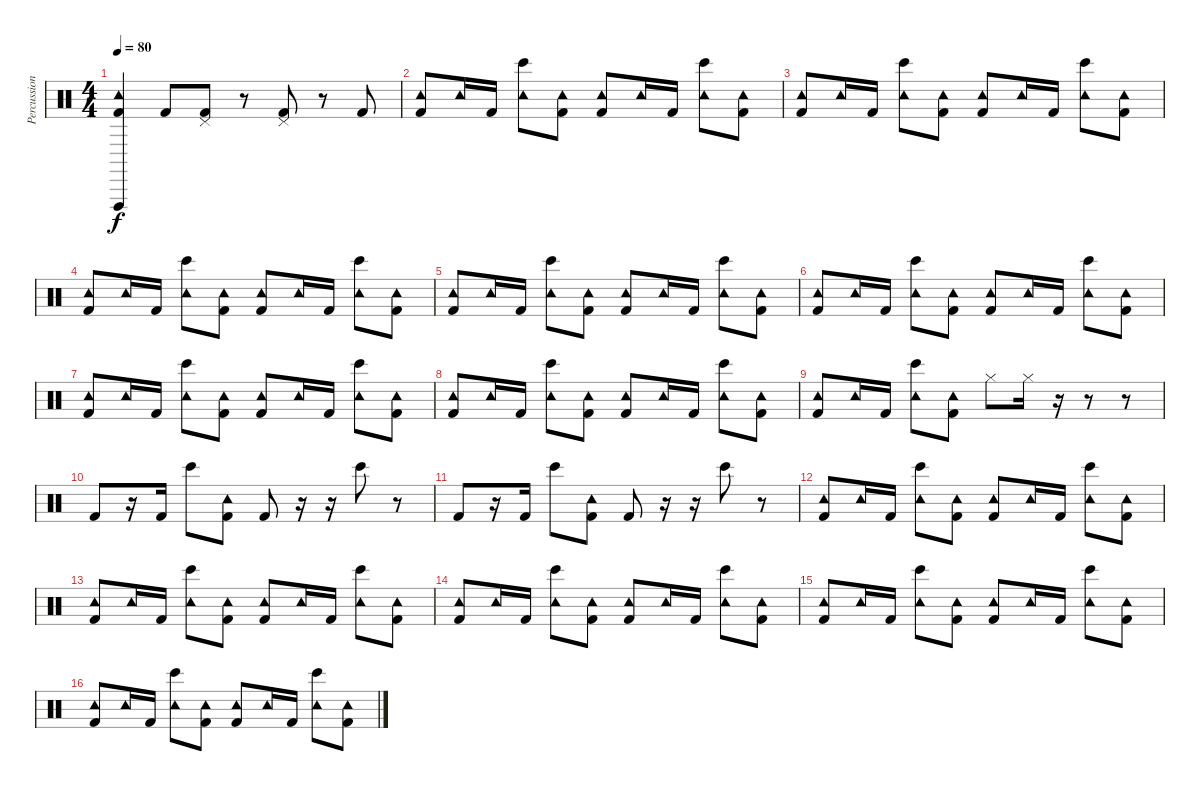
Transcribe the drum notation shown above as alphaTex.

\track ("Percussion" "Percussion") {instrument percussion}
\staff {score}
\articulation defaults
\ts (4 4)
\tempo 80
\clef neutral
\ks c
("Tambourine (hit)" "Vibraslap (hit)" "Kick (hit) 2").4{dy f} "Kick (hit) 2".8 ("Kick (hit) 2" "Pedal Hi-Hat (hit)").8 r.8 ("Kick (hit) 2" "Pedal Hi-Hat (hit)").8 r.8 "Kick (hit) 2".8 |
("Kick (hit) 2" "Tambourine (hit)").8 "Tambourine (hit)".16 "Kick (hit) 2".16 ("Bongo High (hit)" "Tambourine (hit)").8 ("Kick (hit) 2" "Tambourine (hit)").8 ("Kick (hit) 2" "Tambourine (hit)").8 "Tambourine (hit)".16 "Kick (hit) 2".16 ("Bongo High (hit)" "Tambourine (hit)").8 ("Kick (hit) 2" "Tambourine (hit)").8 |
("Kick (hit) 2" "Tambourine (hit)").8 "Tambourine (hit)".16 "Kick (hit) 2".16 ("Bongo High (hit)" "Tambourine (hit)").8 ("Kick (hit) 2" "Tambourine (hit)").8 ("Kick (hit) 2" "Tambourine (hit)").8 "Tambourine (hit)".16 "Kick (hit) 2".16 ("Bongo High (hit)" "Tambourine (hit)").8 ("Kick (hit) 2" "Tambourine (hit)").8 |
("Kick (hit) 2" "Tambourine (hit)").8 "Tambourine (hit)".16 "Kick (hit) 2".16 ("Bongo High (hit)" "Tambourine (hit)").8 ("Kick (hit) 2" "Tambourine (hit)").8 ("Kick (hit) 2" "Tambourine (hit)").8 "Tambourine (hit)".16 "Kick (hit) 2".16 ("Bongo High (hit)" "Tambourine (hit)").8 ("Kick (hit) 2" "Tambourine (hit)").8 |
("Kick (hit) 2" "Tambourine (hit)").8 "Tambourine (hit)".16 "Kick (hit) 2".16 ("Bongo High (hit)" "Tambourine (hit)").8 ("Kick (hit) 2" "Tambourine (hit)").8 ("Kick (hit) 2" "Tambourine (hit)").8 "Tambourine (hit)".16 "Kick (hit) 2".16 ("Bongo High (hit)" "Tambourine (hit)").8 ("Kick (hit) 2" "Tambourine (hit)").8 |
("Kick (hit) 2" "Tambourine (hit)").8 "Tambourine (hit)".16 "Kick (hit) 2".16 ("Bongo High (hit)" "Tambourine (hit)").8 ("Kick (hit) 2" "Tambourine (hit)").8 ("Kick (hit) 2" "Tambourine (hit)").8 "Tambourine (hit)".16 "Kick (hit) 2".16 ("Bongo High (hit)" "Tambourine (hit)").8 ("Kick (hit) 2" "Tambourine (hit)").8 |
("Kick (hit) 2" "Tambourine (hit)").8 "Tambourine (hit)".16 "Kick (hit) 2".16 ("Bongo High (hit)" "Tambourine (hit)").8 ("Kick (hit) 2" "Tambourine (hit)").8 ("Kick (hit) 2" "Tambourine (hit)").8 "Tambourine (hit)".16 "Kick (hit) 2".16 ("Bongo High (hit)" "Tambourine (hit)").8 ("Kick (hit) 2" "Tambourine (hit)").8 |
("Kick (hit) 2" "Tambourine (hit)").8 "Tambourine (hit)".16 "Kick (hit) 2".16 ("Bongo High (hit)" "Tambourine (hit)").8 ("Kick (hit) 2" "Tambourine (hit)").8 ("Kick (hit) 2" "Tambourine (hit)").8 "Tambourine (hit)".16 "Kick (hit) 2".16 ("Bongo High (hit)" "Tambourine (hit)").8 ("Kick (hit) 2" "Tambourine (hit)").8 |
("Kick (hit) 2" "Tambourine (hit)").8 "Tambourine (hit)".16 "Kick (hit) 2".16 ("Bongo High (hit)" "Tambourine (hit)").8 ("Kick (hit) 2" "Tambourine (hit)").8 "Hi-Hat (closed)".8 "Hi-Hat (closed)".16 r.16 r.8 r.8 |
"Kick (hit) 2".8 r.16 "Kick (hit) 2".16 "Bongo High (hit)".8 ("Kick (hit) 2" "Tambourine (hit)").8 "Kick (hit) 2".8 r.16 r.16 "Bongo High (hit)".8 r.8 |
"Kick (hit) 2".8 r.16 "Kick (hit) 2".16 "Bongo High (hit)".8 ("Kick (hit) 2" "Tambourine (hit)").8 "Kick (hit) 2".8 r.16 r.16 "Bongo High (hit)".8 r.8 |
("Kick (hit) 2" "Tambourine (hit)").8 "Tambourine (hit)".16 "Kick (hit) 2".16 ("Bongo High (hit)" "Tambourine (hit)").8 ("Kick (hit) 2" "Tambourine (hit)").8 ("Kick (hit) 2" "Tambourine (hit)").8 "Tambourine (hit)".16 "Kick (hit) 2".16 ("Bongo High (hit)" "Tambourine (hit)").8 ("Kick (hit) 2" "Tambourine (hit)").8 |
("Kick (hit) 2" "Tambourine (hit)").8 "Tambourine (hit)".16 "Kick (hit) 2".16 ("Bongo High (hit)" "Tambourine (hit)").8 ("Kick (hit) 2" "Tambourine (hit)").8 ("Kick (hit) 2" "Tambourine (hit)").8 "Tambourine (hit)".16 "Kick (hit) 2".16 ("Bongo High (hit)" "Tambourine (hit)").8 ("Kick (hit) 2" "Tambourine (hit)").8 |
("Kick (hit) 2" "Tambourine (hit)").8 "Tambourine (hit)".16 "Kick (hit) 2".16 ("Bongo High (hit)" "Tambourine (hit)").8 ("Kick (hit) 2" "Tambourine (hit)").8 ("Kick (hit) 2" "Tambourine (hit)").8 "Tambourine (hit)".16 "Kick (hit) 2".16 ("Bongo High (hit)" "Tambourine (hit)").8 ("Kick (hit) 2" "Tambourine (hit)").8 |
("Kick (hit) 2" "Tambourine (hit)").8 "Tambourine (hit)".16 "Kick (hit) 2".16 ("Bongo High (hit)" "Tambourine (hit)").8 ("Kick (hit) 2" "Tambourine (hit)").8 ("Kick (hit) 2" "Tambourine (hit)").8 "Tambourine (hit)".16 "Kick (hit) 2".16 ("Bongo High (hit)" "Tambourine (hit)").8 ("Kick (hit) 2" "Tambourine (hit)").8 |
("Kick (hit) 2" "Tambourine (hit)").8 "Tambourine (hit)".16 "Kick (hit) 2".16 ("Bongo High (hit)" "Tambourine (hit)").8 ("Kick (hit) 2" "Tambourine (hit)").8 ("Kick (hit) 2" "Tambourine (hit)").8 "Tambourine (hit)".16 "Kick (hit) 2".16 ("Bongo High (hit)" "Tambourine (hit)").8 ("Kick (hit) 2" "Tambourine (hit)").8
